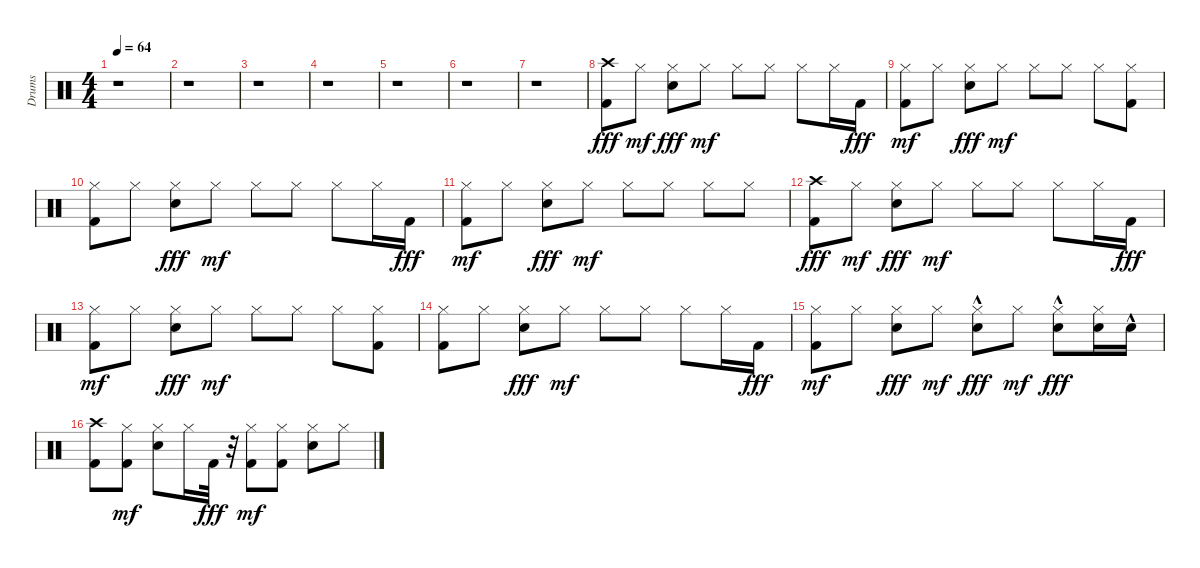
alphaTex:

\track ("Drums" "Drums") {instrument percussion}
\staff {score}
\articulation defaults
\ts (4 4)
\tempo 64
\clef neutral
\ks c
r.1{dy fff} |
r.1 |
r.1 |
r.1 |
r.1 |
r.1 |
r.1 |
("Kick (hit) 2" "Crash high (hit)").8 "Hi-Hat (closed)".8{dy mf} ("Hi-Hat (closed)" "Snare (hit) 2").8{dy fff} "Hi-Hat (closed)".8{dy mf} "Hi-Hat (closed)".8 "Hi-Hat (closed)".8 "Hi-Hat (closed)".8 "Hi-Hat (closed)".16 "Kick (hit) 2".16{dy fff} |
("Kick (hit) 2" "Hi-Hat (closed)").8{dy mf} "Hi-Hat (closed)".8 ("Hi-Hat (closed)" "Snare (hit) 2").8{dy fff} "Hi-Hat (closed)".8{dy mf} "Hi-Hat (closed)".8 "Hi-Hat (closed)".8 "Hi-Hat (closed)".8 ("Kick (hit) 2" "Hi-Hat (closed)").8 |
("Kick (hit) 2" "Hi-Hat (closed)").8 "Hi-Hat (closed)".8 ("Hi-Hat (closed)" "Snare (hit) 2").8{dy fff} "Hi-Hat (closed)".8{dy mf} "Hi-Hat (closed)".8 "Hi-Hat (closed)".8 "Hi-Hat (closed)".8 "Hi-Hat (closed)".16 "Kick (hit) 2".16{dy fff} |
("Kick (hit) 2" "Hi-Hat (closed)").8{dy mf} "Hi-Hat (closed)".8 ("Hi-Hat (closed)" "Snare (hit) 2").8{dy fff} "Hi-Hat (closed)".8{dy mf} "Hi-Hat (closed)".8 "Hi-Hat (closed)".8 "Hi-Hat (closed)".8 "Hi-Hat (closed)".8 |
("Kick (hit) 2" "Crash high (hit)").8{dy fff} "Hi-Hat (closed)".8{dy mf} ("Hi-Hat (closed)" "Snare (hit) 2").8{dy fff} "Hi-Hat (closed)".8{dy mf} "Hi-Hat (closed)".8 "Hi-Hat (closed)".8 "Hi-Hat (closed)".8 "Hi-Hat (closed)".16 "Kick (hit) 2".16{dy fff} |
("Kick (hit) 2" "Hi-Hat (closed)").8{dy mf} "Hi-Hat (closed)".8 ("Hi-Hat (closed)" "Snare (hit) 2").8{dy fff} "Hi-Hat (closed)".8{dy mf} "Hi-Hat (closed)".8 "Hi-Hat (closed)".8 "Hi-Hat (closed)".8 ("Kick (hit) 2" "Hi-Hat (closed)").8 |
("Kick (hit) 2" "Hi-Hat (closed)").8 "Hi-Hat (closed)".8 ("Hi-Hat (closed)" "Snare (hit) 2").8{dy fff} "Hi-Hat (closed)".8{dy mf} "Hi-Hat (closed)".8 "Hi-Hat (closed)".8 "Hi-Hat (closed)".8 "Hi-Hat (closed)".16 "Kick (hit) 2".16{dy fff} |
("Kick (hit) 2" "Hi-Hat (closed)").8{dy mf} "Hi-Hat (closed)".8 ("Hi-Hat (closed)" "Snare (hit) 2").8{dy fff} "Hi-Hat (closed)".8{dy mf} ("Hi-Hat (closed)" "Snare (hit) 2"{hac}).8{dy fff} "Hi-Hat (closed)".8{dy mf} ("Hi-Hat (closed)" "Snare (hit) 2"{hac}).8{dy fff} ("Hi-Hat (closed)" "Snare (hit) 2").16 "Snare (hit) 2"{hac}.16 |
("Kick (hit) 2" "Crash high (hit)").8 ("Kick (hit) 2" "Hi-Hat (closed)").8{dy mf} ("Snare (hit) 2" "Hi-Hat (closed)").8 "Hi-Hat (closed)".16 "Kick (hit) 2".32{dy fff} r.32 ("Kick (hit) 2" "Hi-Hat (closed)").8{dy mf} ("Kick (hit) 2" "Hi-Hat (closed)").8 ("Snare (hit) 2" "Hi-Hat (closed)").8 "Hi-Hat (closed)".8
